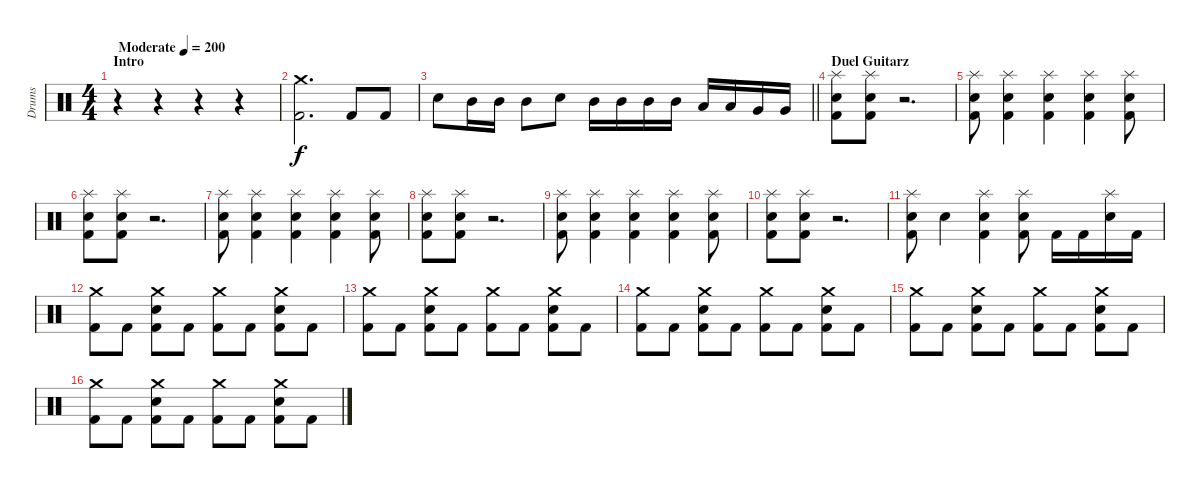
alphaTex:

\track ("Drums" "Drums") {instrument percussion}
\staff {score}
\articulation defaults
\ts (4 4)
\section ("" "Intro")
\tempo (200 "Moderate")
\clef neutral
\ks c
r.4{dy f} r.4 r.4 r.4 |
("Crash medium (hit)" "Kick (hit) 2").2{d} "Kick (hit) 2".8 "Kick (hit) 2".8 |
\barLineRight lightlight "Electric Snare (hit)".8 "Mid Tom (hit)".16 "Mid Tom (hit)".16 "Mid Tom (hit)".8 "Electric Snare (hit)".8 "Mid Tom (hit)".16 "Mid Tom (hit)".16 "Mid Tom (hit)".16 "Mid Tom (hit)".16 "Low Tom (hit)".16 "Low Tom (hit)".16 "Very Low Tom (hit)".16 "Very Low Tom (hit)".16
|
\section ("" "Duel Guitarz")
("Splash (hit)" "Electric Snare (hit)" "Kick (hit) 2").8 ("Splash (hit)" "Electric Snare (hit)" "Kick (hit) 2").8 r.2{d} |
("Splash (hit)" "Electric Snare (hit)" "Kick (hit) 2").8 ("Splash (hit)" "Electric Snare (hit)" "Kick (hit) 2").4 ("Splash (hit)" "Electric Snare (hit)" "Kick (hit) 2").4 ("Splash (hit)" "Electric Snare (hit)" "Kick (hit) 2").4 ("Splash (hit)" "Electric Snare (hit)" "Kick (hit) 2").8 |
("Splash (hit)" "Electric Snare (hit)" "Kick (hit) 2").8 ("Splash (hit)" "Electric Snare (hit)" "Kick (hit) 2").8 r.2{d} |
("Splash (hit)" "Electric Snare (hit)" "Kick (hit) 2").8 ("Splash (hit)" "Electric Snare (hit)" "Kick (hit) 2").4 ("Splash (hit)" "Electric Snare (hit)" "Kick (hit) 2").4 ("Splash (hit)" "Electric Snare (hit)" "Kick (hit) 2").4 ("Splash (hit)" "Electric Snare (hit)" "Kick (hit) 2").8 |
("Splash (hit)" "Electric Snare (hit)" "Kick (hit) 2").8 ("Splash (hit)" "Electric Snare (hit)" "Kick (hit) 2").8 r.2{d} |
("Splash (hit)" "Electric Snare (hit)" "Kick (hit) 2").8 ("Splash (hit)" "Electric Snare (hit)" "Kick (hit) 2").4 ("Splash (hit)" "Electric Snare (hit)" "Kick (hit) 2").4 ("Splash (hit)" "Electric Snare (hit)" "Kick (hit) 2").4 ("Splash (hit)" "Electric Snare (hit)" "Kick (hit) 2").8 |
("Splash (hit)" "Electric Snare (hit)" "Kick (hit) 2").8 ("Splash (hit)" "Electric Snare (hit)" "Kick (hit) 2").8 r.2{d} |
("Splash (hit)" "Electric Snare (hit)" "Kick (hit) 2").8 "Electric Snare (hit)".4 ("Splash (hit)" "Electric Snare (hit)" "Kick (hit) 2").4 ("Splash (hit)" "Electric Snare (hit)" "Kick (hit) 2").8 "Kick (hit) 2".16 "Kick (hit) 2".16 ("Splash (hit)" "Electric Snare (hit)").16 "Kick (hit) 2".16 |
("Crash medium (hit)" "Kick (hit) 2").8 "Kick (hit) 2".8 ("Crash medium (hit)" "Electric Snare (hit)" "Kick (hit) 2").8 "Kick (hit) 2".8 ("Crash medium (hit)" "Kick (hit) 2").8 "Kick (hit) 2".8 ("Crash medium (hit)" "Electric Snare (hit)" "Kick (hit) 2").8 "Kick (hit) 2".8 |
("Crash medium (hit)" "Kick (hit) 2").8 "Kick (hit) 2".8 ("Crash medium (hit)" "Electric Snare (hit)" "Kick (hit) 2").8 "Kick (hit) 2".8 ("Crash medium (hit)" "Kick (hit) 2").8 "Kick (hit) 2".8 ("Crash medium (hit)" "Electric Snare (hit)" "Kick (hit) 2").8 "Kick (hit) 2".8 |
("Crash medium (hit)" "Kick (hit) 2").8 "Kick (hit) 2".8 ("Crash medium (hit)" "Electric Snare (hit)" "Kick (hit) 2").8 "Kick (hit) 2".8 ("Crash medium (hit)" "Kick (hit) 2").8 "Kick (hit) 2".8 ("Crash medium (hit)" "Electric Snare (hit)" "Kick (hit) 2").8 "Kick (hit) 2".8 |
("Crash medium (hit)" "Kick (hit) 2").8 "Kick (hit) 2".8 ("Crash medium (hit)" "Electric Snare (hit)" "Kick (hit) 2").8 "Kick (hit) 2".8 ("Crash medium (hit)" "Kick (hit) 2").8 "Kick (hit) 2".8 ("Crash medium (hit)" "Electric Snare (hit)" "Kick (hit) 2").8 "Kick (hit) 2".8 |
("Crash medium (hit)" "Kick (hit) 2").8 "Kick (hit) 2".8 ("Crash medium (hit)" "Electric Snare (hit)" "Kick (hit) 2").8 "Kick (hit) 2".8 ("Crash medium (hit)" "Kick (hit) 2").8 "Kick (hit) 2".8 ("Crash medium (hit)" "Electric Snare (hit)" "Kick (hit) 2").8 "Kick (hit) 2".8
